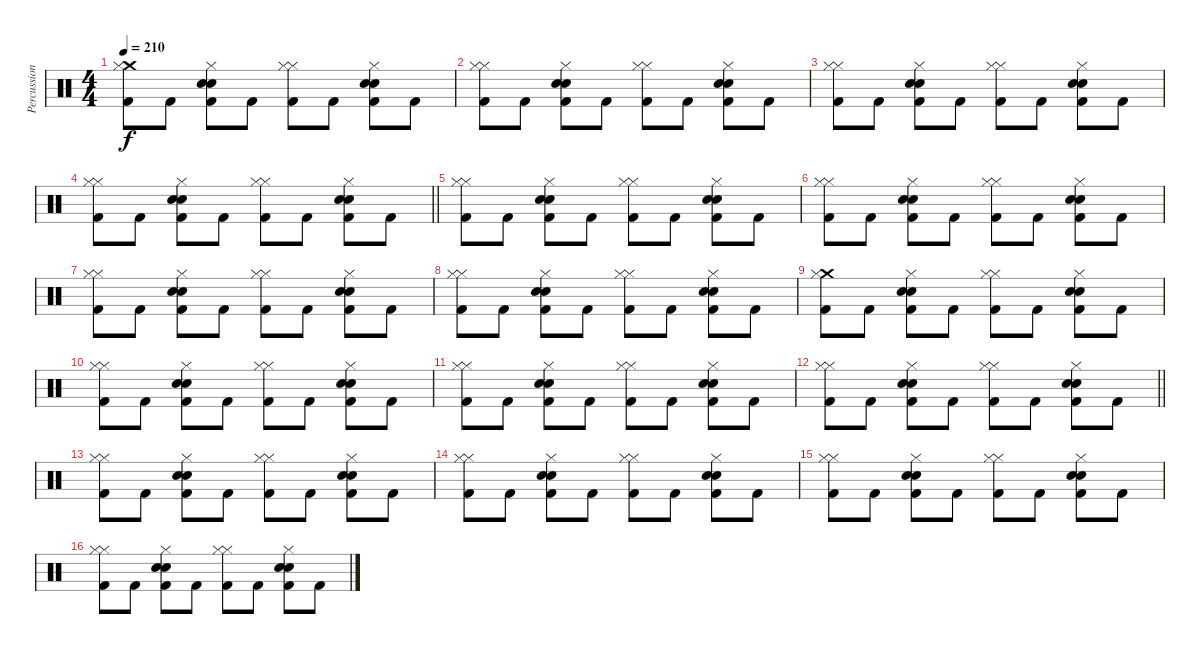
\track ("Percussion" "Percussion") {instrument percussion}
\staff {score}
\articulation defaults
\ts (4 4)
\tempo 210
\clef neutral
\ks c
("Crash medium (hit)" "Hi-Hat (closed)" "Kick (hit) 2").8{dy f} "Kick (hit) 2".8 ("Hi-Hat (closed)" "Snare (hit) 2" "Electric Snare (hit)" "Kick (hit) 2").8 "Kick (hit) 2".8 ("Hi-Hat (closed)" "Hi-Hat (closed)" "Kick (hit) 2").8 "Kick (hit) 2".8 ("Hi-Hat (closed)" "Snare (hit) 2" "Electric Snare (hit)" "Kick (hit) 2").8 "Kick (hit) 2".8 |
("Hi-Hat (closed)" "Hi-Hat (closed)" "Kick (hit) 2").8 "Kick (hit) 2".8 ("Hi-Hat (closed)" "Snare (hit) 2" "Electric Snare (hit)" "Kick (hit) 2").8 "Kick (hit) 2".8 ("Hi-Hat (closed)" "Hi-Hat (closed)" "Kick (hit) 2").8 "Kick (hit) 2".8 ("Hi-Hat (closed)" "Snare (hit) 2" "Electric Snare (hit)" "Kick (hit) 2").8 "Kick (hit) 2".8 |
("Hi-Hat (closed)" "Hi-Hat (closed)" "Kick (hit) 2").8 "Kick (hit) 2".8 ("Hi-Hat (closed)" "Snare (hit) 2" "Electric Snare (hit)" "Kick (hit) 2").8 "Kick (hit) 2".8 ("Hi-Hat (closed)" "Hi-Hat (closed)" "Kick (hit) 2").8 "Kick (hit) 2".8 ("Hi-Hat (closed)" "Snare (hit) 2" "Electric Snare (hit)" "Kick (hit) 2").8 "Kick (hit) 2".8 |
\barLineRight lightlight
("Hi-Hat (closed)" "Hi-Hat (closed)" "Kick (hit) 2").8 "Kick (hit) 2".8 ("Hi-Hat (closed)" "Snare (hit) 2" "Electric Snare (hit)" "Kick (hit) 2").8 "Kick (hit) 2".8 ("Hi-Hat (closed)" "Hi-Hat (closed)" "Kick (hit) 2").8 "Kick (hit) 2".8 ("Hi-Hat (closed)" "Snare (hit) 2" "Electric Snare (hit)" "Kick (hit) 2").8 "Kick (hit) 2".8 |
("Hi-Hat (closed)" "Hi-Hat (closed)" "Kick (hit) 2").8 "Kick (hit) 2".8 ("Hi-Hat (closed)" "Snare (hit) 2" "Electric Snare (hit)" "Kick (hit) 2").8 "Kick (hit) 2".8 ("Hi-Hat (closed)" "Hi-Hat (closed)" "Kick (hit) 2").8 "Kick (hit) 2".8 ("Hi-Hat (closed)" "Snare (hit) 2" "Electric Snare (hit)" "Kick (hit) 2").8 "Kick (hit) 2".8 |
("Hi-Hat (closed)" "Hi-Hat (closed)" "Kick (hit) 2").8 "Kick (hit) 2".8 ("Hi-Hat (closed)" "Snare (hit) 2" "Electric Snare (hit)" "Kick (hit) 2").8 "Kick (hit) 2".8 ("Hi-Hat (closed)" "Hi-Hat (closed)" "Kick (hit) 2").8 "Kick (hit) 2".8 ("Hi-Hat (closed)" "Snare (hit) 2" "Electric Snare (hit)" "Kick (hit) 2").8 "Kick (hit) 2".8 |
("Hi-Hat (closed)" "Hi-Hat (closed)" "Kick (hit) 2").8 "Kick (hit) 2".8 ("Hi-Hat (closed)" "Snare (hit) 2" "Electric Snare (hit)" "Kick (hit) 2").8 "Kick (hit) 2".8 ("Hi-Hat (closed)" "Hi-Hat (closed)" "Kick (hit) 2").8 "Kick (hit) 2".8 ("Hi-Hat (closed)" "Snare (hit) 2" "Electric Snare (hit)" "Kick (hit) 2").8 "Kick (hit) 2".8 |
("Hi-Hat (closed)" "Hi-Hat (closed)" "Kick (hit) 2").8 "Kick (hit) 2".8 ("Hi-Hat (closed)" "Snare (hit) 2" "Electric Snare (hit)" "Kick (hit) 2").8 "Kick (hit) 2".8 ("Hi-Hat (closed)" "Hi-Hat (closed)" "Kick (hit) 2").8 "Kick (hit) 2".8 ("Hi-Hat (closed)" "Snare (hit) 2" "Electric Snare (hit)" "Kick (hit) 2").8 "Kick (hit) 2".8 |
("Crash medium (hit)" "Hi-Hat (closed)" "Kick (hit) 2").8 "Kick (hit) 2".8 ("Hi-Hat (closed)" "Snare (hit) 2" "Electric Snare (hit)" "Kick (hit) 2").8 "Kick (hit) 2".8 ("Hi-Hat (closed)" "Hi-Hat (closed)" "Kick (hit) 2").8 "Kick (hit) 2".8 ("Hi-Hat (closed)" "Snare (hit) 2" "Electric Snare (hit)" "Kick (hit) 2").8 "Kick (hit) 2".8 |
("Hi-Hat (closed)" "Hi-Hat (closed)" "Kick (hit) 2").8 "Kick (hit) 2".8 ("Hi-Hat (closed)" "Snare (hit) 2" "Electric Snare (hit)" "Kick (hit) 2").8 "Kick (hit) 2".8 ("Hi-Hat (closed)" "Hi-Hat (closed)" "Kick (hit) 2").8 "Kick (hit) 2".8 ("Hi-Hat (closed)" "Snare (hit) 2" "Electric Snare (hit)" "Kick (hit) 2").8 "Kick (hit) 2".8 |
("Hi-Hat (closed)" "Hi-Hat (closed)" "Kick (hit) 2").8 "Kick (hit) 2".8 ("Hi-Hat (closed)" "Snare (hit) 2" "Electric Snare (hit)" "Kick (hit) 2").8 "Kick (hit) 2".8 ("Hi-Hat (closed)" "Hi-Hat (closed)" "Kick (hit) 2").8 "Kick (hit) 2".8 ("Hi-Hat (closed)" "Snare (hit) 2" "Electric Snare (hit)" "Kick (hit) 2").8 "Kick (hit) 2".8 |
\barLineRight lightlight
("Hi-Hat (closed)" "Hi-Hat (closed)" "Kick (hit) 2").8 "Kick (hit) 2".8 ("Hi-Hat (closed)" "Snare (hit) 2" "Electric Snare (hit)" "Kick (hit) 2").8 "Kick (hit) 2".8 ("Hi-Hat (closed)" "Hi-Hat (closed)" "Kick (hit) 2").8 "Kick (hit) 2".8 ("Hi-Hat (closed)" "Snare (hit) 2" "Electric Snare (hit)" "Kick (hit) 2").8 "Kick (hit) 2".8 |
("Hi-Hat (closed)" "Hi-Hat (closed)" "Kick (hit) 2").8 "Kick (hit) 2".8 ("Hi-Hat (closed)" "Snare (hit) 2" "Electric Snare (hit)" "Kick (hit) 2").8 "Kick (hit) 2".8 ("Hi-Hat (closed)" "Hi-Hat (closed)" "Kick (hit) 2").8 "Kick (hit) 2".8 ("Hi-Hat (closed)" "Snare (hit) 2" "Electric Snare (hit)" "Kick (hit) 2").8 "Kick (hit) 2".8 |
("Hi-Hat (closed)" "Hi-Hat (closed)" "Kick (hit) 2").8 "Kick (hit) 2".8 ("Hi-Hat (closed)" "Snare (hit) 2" "Electric Snare (hit)" "Kick (hit) 2").8 "Kick (hit) 2".8 ("Hi-Hat (closed)" "Hi-Hat (closed)" "Kick (hit) 2").8 "Kick (hit) 2".8 ("Hi-Hat (closed)" "Snare (hit) 2" "Electric Snare (hit)" "Kick (hit) 2").8 "Kick (hit) 2".8 |
("Hi-Hat (closed)" "Hi-Hat (closed)" "Kick (hit) 2").8 "Kick (hit) 2".8 ("Hi-Hat (closed)" "Snare (hit) 2" "Electric Snare (hit)" "Kick (hit) 2").8 "Kick (hit) 2".8 ("Hi-Hat (closed)" "Hi-Hat (closed)" "Kick (hit) 2").8 "Kick (hit) 2".8 ("Hi-Hat (closed)" "Snare (hit) 2" "Electric Snare (hit)" "Kick (hit) 2").8 "Kick (hit) 2".8 |
("Hi-Hat (closed)" "Hi-Hat (closed)" "Kick (hit) 2").8 "Kick (hit) 2".8 ("Hi-Hat (closed)" "Snare (hit) 2" "Electric Snare (hit)" "Kick (hit) 2").8 "Kick (hit) 2".8 ("Hi-Hat (closed)" "Hi-Hat (closed)" "Kick (hit) 2").8 "Kick (hit) 2".8 ("Hi-Hat (closed)" "Snare (hit) 2" "Electric Snare (hit)" "Kick (hit) 2").8 "Kick (hit) 2".8
